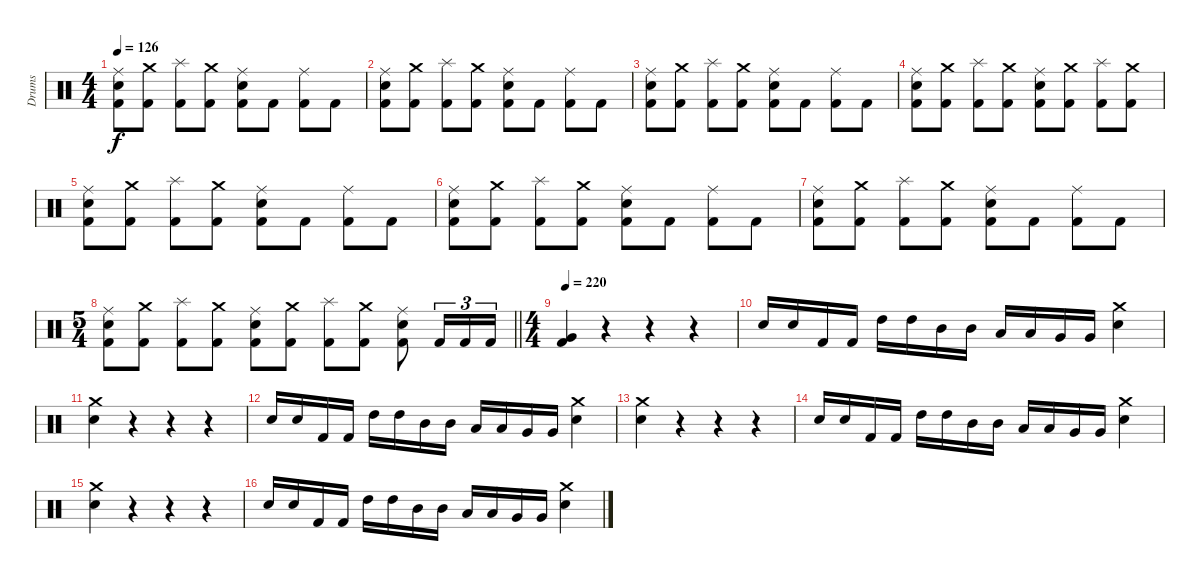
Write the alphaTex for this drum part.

\track ("Drums" "Drums") {instrument percussion}
\staff {score}
\articulation defaults
\ts (4 4)
\tempo 126
\clef neutral
\ks c
("Ride (middle)" "Electric Snare (hit)" "Kick (hit) 2").8{dy f} ("Crash medium (hit)" "Kick (hit) 2").8 ("Splash (hit)" "Kick (hit) 2").8 ("Crash medium (hit)" "Kick (hit) 2").8 ("Ride (middle)" "Electric Snare (hit)" "Kick (hit) 2").8 "Kick (hit) 2".8 ("Ride (middle)" "Kick (hit) 2").8 "Kick (hit) 2".8 |
("Ride (middle)" "Electric Snare (hit)" "Kick (hit) 2").8 ("Crash medium (hit)" "Kick (hit) 2").8 ("Splash (hit)" "Kick (hit) 2").8 ("Crash medium (hit)" "Kick (hit) 2").8 ("Ride (middle)" "Electric Snare (hit)" "Kick (hit) 2").8 "Kick (hit) 2".8 ("Ride (middle)" "Kick (hit) 2").8 "Kick (hit) 2".8 |
("Ride (middle)" "Electric Snare (hit)" "Kick (hit) 2").8 ("Crash medium (hit)" "Kick (hit) 2").8 ("Splash (hit)" "Kick (hit) 2").8 ("Crash medium (hit)" "Kick (hit) 2").8 ("Ride (middle)" "Electric Snare (hit)" "Kick (hit) 2").8 "Kick (hit) 2".8 ("Ride (middle)" "Kick (hit) 2").8 "Kick (hit) 2".8 |
("Ride (middle)" "Electric Snare (hit)" "Kick (hit) 2").8 ("Crash medium (hit)" "Kick (hit) 2").8 ("Splash (hit)" "Kick (hit) 2").8 ("Crash medium (hit)" "Kick (hit) 2").8 ("Ride (middle)" "Electric Snare (hit)" "Kick (hit) 2").8 ("Crash medium (hit)" "Kick (hit) 2").8 ("Splash (hit)" "Kick (hit) 2").8 ("Crash medium (hit)" "Kick (hit) 2").8 |
("Ride (middle)" "Electric Snare (hit)" "Kick (hit) 2").8 ("Crash medium (hit)" "Kick (hit) 2").8 ("Splash (hit)" "Kick (hit) 2").8 ("Crash medium (hit)" "Kick (hit) 2").8 ("Ride (middle)" "Electric Snare (hit)" "Kick (hit) 2").8 "Kick (hit) 2".8 ("Ride (middle)" "Kick (hit) 2").8 "Kick (hit) 2".8 |
("Ride (middle)" "Electric Snare (hit)" "Kick (hit) 2").8 ("Crash medium (hit)" "Kick (hit) 2").8 ("Splash (hit)" "Kick (hit) 2").8 ("Crash medium (hit)" "Kick (hit) 2").8 ("Ride (middle)" "Electric Snare (hit)" "Kick (hit) 2").8 "Kick (hit) 2".8 ("Ride (middle)" "Kick (hit) 2").8 "Kick (hit) 2".8 |
("Ride (middle)" "Electric Snare (hit)" "Kick (hit) 2").8 ("Crash medium (hit)" "Kick (hit) 2").8 ("Splash (hit)" "Kick (hit) 2").8 ("Crash medium (hit)" "Kick (hit) 2").8 ("Ride (middle)" "Electric Snare (hit)" "Kick (hit) 2").8 "Kick (hit) 2".8 ("Ride (middle)" "Kick (hit) 2").8 "Kick (hit) 2".8 |
\ts (5 4)
\barLineRight lightlight
("Ride (middle)" "Electric Snare (hit)" "Kick (hit) 2").8 ("Crash medium (hit)" "Kick (hit) 2").8 ("Splash (hit)" "Kick (hit) 2").8 ("Crash medium (hit)" "Kick (hit) 2").8 ("Ride (middle)" "Electric Snare (hit)" "Kick (hit) 2").8 ("Crash medium (hit)" "Kick (hit) 2").8 ("Splash (hit)" "Kick (hit) 2").8 ("Crash medium (hit)" "Kick (hit) 2").8 ("Ride (middle)" "Electric Snare (hit)" "Kick (hit) 2").8 "Kick (hit) 2".16{tu (3 2)} "Kick (hit) 2".16{tu (3 2)} "Kick (hit) 2".16{tu (3 2)} |
\ts (4 4)
\section ("" "")
\tempo 220
("Very Low Tom (hit)" "Kick (hit) 2").4 r.4 r.4 r.4 |
"Electric Snare (hit)".16 "Electric Snare (hit)".16 "Kick (hit) 2".16 "Kick (hit) 2".16 "High Tom (hit)".16 "High Tom (hit)".16 "Mid Tom (hit)".16 "Mid Tom (hit)".16 "Low Tom (hit)".16 "Low Tom (hit)".16 "Very Low Tom (hit)".16 "Very Low Tom (hit)".16 ("Crash medium (hit)" "Electric Snare (hit)").4 |
("Crash medium (hit)" "Electric Snare (hit)").4 r.4 r.4 r.4 |
"Electric Snare (hit)".16 "Electric Snare (hit)".16 "Kick (hit) 2".16 "Kick (hit) 2".16 "High Tom (hit)".16 "High Tom (hit)".16 "Mid Tom (hit)".16 "Mid Tom (hit)".16 "Low Tom (hit)".16 "Low Tom (hit)".16 "Very Low Tom (hit)".16 "Very Low Tom (hit)".16 ("Crash medium (hit)" "Electric Snare (hit)").4 |
("Crash medium (hit)" "Electric Snare (hit)").4 r.4 r.4 r.4 |
"Electric Snare (hit)".16 "Electric Snare (hit)".16 "Kick (hit) 2".16 "Kick (hit) 2".16 "High Tom (hit)".16 "High Tom (hit)".16 "Mid Tom (hit)".16 "Mid Tom (hit)".16 "Low Tom (hit)".16 "Low Tom (hit)".16 "Very Low Tom (hit)".16 "Very Low Tom (hit)".16 ("Crash medium (hit)" "Electric Snare (hit)").4 |
("Crash medium (hit)" "Electric Snare (hit)").4 r.4 r.4 r.4 |
"Electric Snare (hit)".16 "Electric Snare (hit)".16 "Kick (hit) 2".16 "Kick (hit) 2".16 "High Tom (hit)".16 "High Tom (hit)".16 "Mid Tom (hit)".16 "Mid Tom (hit)".16 "Low Tom (hit)".16 "Low Tom (hit)".16 "Very Low Tom (hit)".16 "Very Low Tom (hit)".16 ("Crash medium (hit)" "Electric Snare (hit)").4
